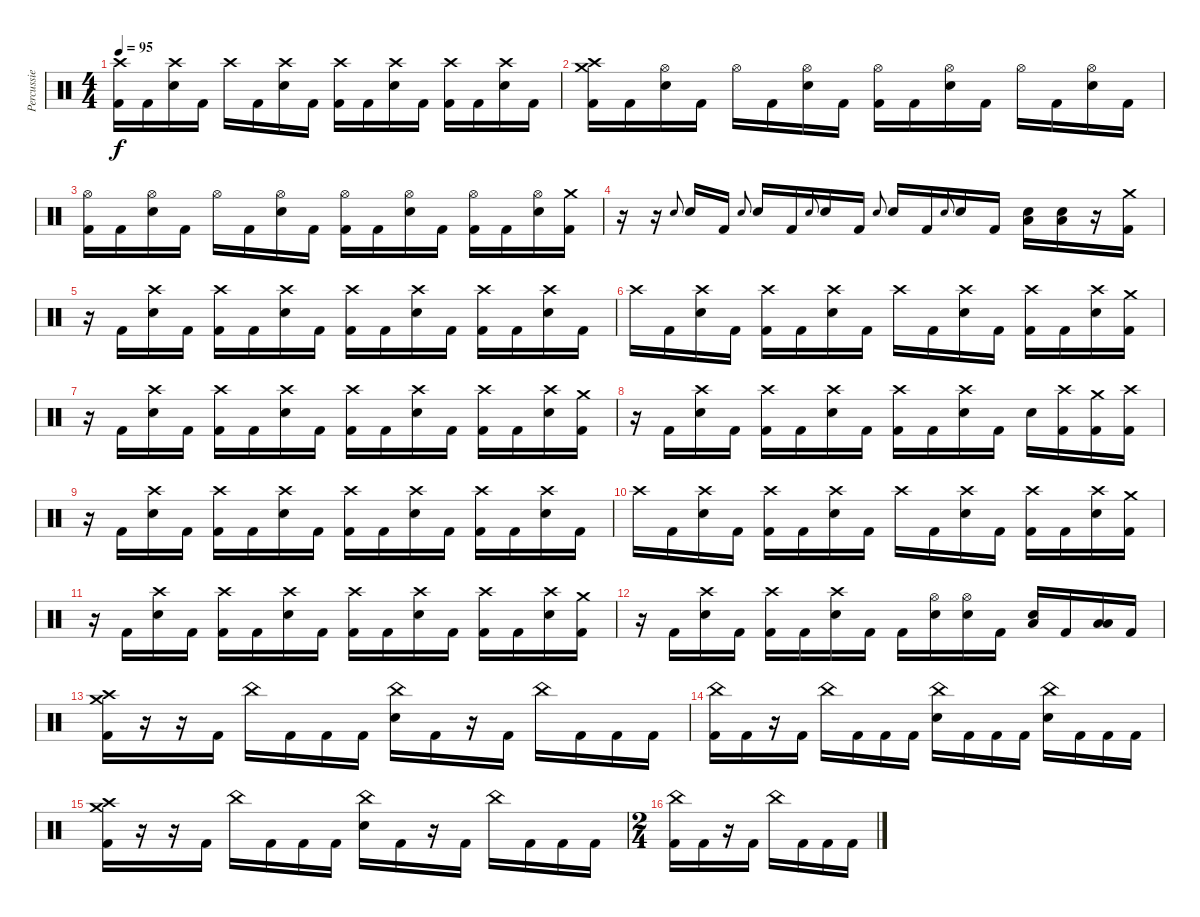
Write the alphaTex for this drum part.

\track ("Percussie" "Percussie") {instrument percussion}
\staff {score}
\articulation defaults
\ts (4 4)
\tempo 95
\clef neutral
\ks c
("Crash high (hit)" "Kick (hit) 2").16{dy f} "Kick (hit) 2".16 ("Crash high (hit)" "Electric Snare (hit)").16 "Kick (hit) 2".16 "Crash high (hit)".16 "Kick (hit) 2".16 ("Crash high (hit)" "Electric Snare (hit)").16 "Kick (hit) 2".16 ("Crash high (hit)" "Kick (hit) 2").16 "Kick (hit) 2".16 ("Crash high (hit)" "Electric Snare (hit)").16 "Kick (hit) 2".16 ("Crash high (hit)" "Kick (hit) 2").16 "Kick (hit) 2".16 ("Crash high (hit)" "Electric Snare (hit)").16 "Kick (hit) 2".16 |
("Crash medium (hit)" "Crash high (hit)" "Kick (hit) 2").16 "Kick (hit) 2".16 ("Hi-Hat (open)" "Electric Snare (hit)").16 "Kick (hit) 2".16 "Hi-Hat (open)".16 "Kick (hit) 2".16 ("Hi-Hat (open)" "Electric Snare (hit)").16 "Kick (hit) 2".16 ("Hi-Hat (open)" "Kick (hit) 2").16 "Kick (hit) 2".16 ("Hi-Hat (open)" "Electric Snare (hit)").16 "Kick (hit) 2".16 "Hi-Hat (open)".16 "Kick (hit) 2".16 ("Hi-Hat (open)" "Electric Snare (hit)").16 "Kick (hit) 2".16 |
("Hi-Hat (open)" "Kick (hit) 2").16 "Kick (hit) 2".16 ("Hi-Hat (open)" "Electric Snare (hit)").16 "Kick (hit) 2".16 "Hi-Hat (open)".16 "Kick (hit) 2".16 ("Hi-Hat (open)" "Electric Snare (hit)").16 "Kick (hit) 2".16 ("Hi-Hat (open)" "Kick (hit) 2").16 "Kick (hit) 2".16 ("Hi-Hat (open)" "Electric Snare (hit)").16 "Kick (hit) 2".16 ("Hi-Hat (open)" "Kick (hit) 2").16 "Kick (hit) 2".16 ("Hi-Hat (open)" "Electric Snare (hit)").16 ("Crash medium (hit)" "Kick (hit) 2").16 |
r.16 r.16 "Electric Snare (hit)".8{gr onbeat} "Electric Snare (hit)".16 "Kick (hit) 2".16 "Electric Snare (hit)".8{gr onbeat} "Electric Snare (hit)".16 "Kick (hit) 2".16 "Electric Snare (hit)".8{gr onbeat} "Electric Snare (hit)".16 "Kick (hit) 2".16 "Electric Snare (hit)".8{gr onbeat} "Electric Snare (hit)".16 "Kick (hit) 2".16 "Electric Snare (hit)".8{gr onbeat} "Electric Snare (hit)".16 "Kick (hit) 2".16 ("Low Floor Tom (hit)" "Electric Snare (hit)").16 ("Low Floor Tom (hit)" "Electric Snare (hit)").16 r.16 ("Crash medium (hit)" "Kick (hit) 2").16 |
r.16 "Kick (hit) 2".16 ("Crash high (hit)" "Electric Snare (hit)").16 "Kick (hit) 2".16 ("Crash high (hit)" "Kick (hit) 2").16 "Kick (hit) 2".16 ("Crash high (hit)" "Electric Snare (hit)").16 "Kick (hit) 2".16 ("Crash high (hit)" "Kick (hit) 2").16 "Kick (hit) 2".16 ("Crash high (hit)" "Electric Snare (hit)").16 "Kick (hit) 2".16 ("Crash high (hit)" "Kick (hit) 2").16 "Kick (hit) 2".16 ("Crash high (hit)" "Electric Snare (hit)").16 "Kick (hit) 2".16 |
"Crash high (hit)".16 "Kick (hit) 2".16 ("Crash high (hit)" "Electric Snare (hit)").16 "Kick (hit) 2".16 ("Crash high (hit)" "Kick (hit) 2").16 "Kick (hit) 2".16 ("Crash high (hit)" "Electric Snare (hit)").16 "Kick (hit) 2".16 "Crash high (hit)".16 "Kick (hit) 2".16 ("Crash high (hit)" "Electric Snare (hit)").16 "Kick (hit) 2".16 ("Crash high (hit)" "Kick (hit) 2").16 "Kick (hit) 2".16 ("Crash high (hit)" "Electric Snare (hit)").16 ("Crash medium (hit)" "Kick (hit) 2").16 |
r.16 "Kick (hit) 2".16 ("Crash high (hit)" "Electric Snare (hit)").16 "Kick (hit) 2".16 ("Crash high (hit)" "Kick (hit) 2").16 "Kick (hit) 2".16 ("Crash high (hit)" "Electric Snare (hit)").16 "Kick (hit) 2".16 ("Crash high (hit)" "Kick (hit) 2").16 "Kick (hit) 2".16 ("Crash high (hit)" "Electric Snare (hit)").16 "Kick (hit) 2".16 ("Crash high (hit)" "Kick (hit) 2").16 "Kick (hit) 2".16 ("Crash high (hit)" "Electric Snare (hit)").16 ("Crash medium (hit)" "Kick (hit) 2").16 |
r.16 "Kick (hit) 2".16 ("Crash high (hit)" "Electric Snare (hit)").16 "Kick (hit) 2".16 ("Crash high (hit)" "Kick (hit) 2").16 "Kick (hit) 2".16 ("Crash high (hit)" "Electric Snare (hit)").16 "Kick (hit) 2".16 ("Crash high (hit)" "Kick (hit) 2").16 "Kick (hit) 2".16 ("Crash high (hit)" "Electric Snare (hit)").16 "Kick (hit) 2".16 "Electric Snare (hit)".16 ("Crash high (hit)" "Kick (hit) 2").16 ("Crash medium (hit)" "Kick (hit) 2").16 ("Crash high (hit)" "Kick (hit) 2").16 |
r.16 "Kick (hit) 2".16 ("Crash high (hit)" "Electric Snare (hit)").16 "Kick (hit) 2".16 ("Crash high (hit)" "Kick (hit) 2").16 "Kick (hit) 2".16 ("Crash high (hit)" "Electric Snare (hit)").16 "Kick (hit) 2".16 ("Crash high (hit)" "Kick (hit) 2").16 "Kick (hit) 2".16 ("Crash high (hit)" "Electric Snare (hit)").16 "Kick (hit) 2".16 ("Crash high (hit)" "Kick (hit) 2").16 "Kick (hit) 2".16 ("Crash high (hit)" "Electric Snare (hit)").16 "Kick (hit) 2".16 |
"Crash high (hit)".16 "Kick (hit) 2".16 ("Crash high (hit)" "Electric Snare (hit)").16 "Kick (hit) 2".16 ("Crash high (hit)" "Kick (hit) 2").16 "Kick (hit) 2".16 ("Crash high (hit)" "Electric Snare (hit)").16 "Kick (hit) 2".16 "Crash high (hit)".16 "Kick (hit) 2".16 ("Crash high (hit)" "Electric Snare (hit)").16 "Kick (hit) 2".16 ("Crash high (hit)" "Kick (hit) 2").16 "Kick (hit) 2".16 ("Crash high (hit)" "Electric Snare (hit)").16 ("Crash medium (hit)" "Kick (hit) 2").16 |
r.16 "Kick (hit) 2".16 ("Crash high (hit)" "Electric Snare (hit)").16 "Kick (hit) 2".16 ("Crash high (hit)" "Kick (hit) 2").16 "Kick (hit) 2".16 ("Crash high (hit)" "Electric Snare (hit)").16 "Kick (hit) 2".16 ("Crash high (hit)" "Kick (hit) 2").16 "Kick (hit) 2".16 ("Crash high (hit)" "Electric Snare (hit)").16 "Kick (hit) 2".16 ("Crash high (hit)" "Kick (hit) 2").16 "Kick (hit) 2".16 ("Crash high (hit)" "Electric Snare (hit)").16 ("Crash medium (hit)" "Kick (hit) 2").16 |
r.16 "Kick (hit) 2".16 ("Crash high (hit)" "Electric Snare (hit)").16 "Kick (hit) 2".16 ("Crash high (hit)" "Kick (hit) 2").16 "Kick (hit) 2".16 ("Crash high (hit)" "Electric Snare (hit)").16 "Kick (hit) 2".16 "Kick (hit) 2".16 ("Hi-Hat (open)" "Electric Snare (hit)").16 ("Hi-Hat (open)" "Electric Snare (hit)").16 "Kick (hit) 2".16 ("Low Floor Tom (hit)" "Electric Snare (hit)").16 "Kick (hit) 2".16 ("Low Tom (hit)" "Low Floor Tom (hit)").16 "Kick (hit) 2".16 |
("Crash medium (hit)" "Crash high (hit)" "Kick (hit) 2").16 r.16 r.16 "Kick (hit) 2".16 "China (hit)".16 "Kick (hit) 2".16 "Kick (hit) 2".16 "Kick (hit) 2".16 ("China (hit)" "Electric Snare (hit)").16 "Kick (hit) 2".16 r.16 "Kick (hit) 2".16 "China (hit)".16 "Kick (hit) 2".16 "Kick (hit) 2".16 "Kick (hit) 2".16 |
("China (hit)" "Kick (hit) 2").16 "Kick (hit) 2".16 r.16 "Kick (hit) 2".16 "China (hit)".16 "Kick (hit) 2".16 "Kick (hit) 2".16 "Kick (hit) 2".16 ("China (hit)" "Electric Snare (hit)").16 "Kick (hit) 2".16 "Kick (hit) 2".16 "Kick (hit) 2".16 ("China (hit)" "Electric Snare (hit)").16 "Kick (hit) 2".16 "Kick (hit) 2".16 "Kick (hit) 2".16 |
("Crash medium (hit)" "Crash high (hit)" "Kick (hit) 2").16 r.16 r.16 "Kick (hit) 2".16 "China (hit)".16 "Kick (hit) 2".16 "Kick (hit) 2".16 "Kick (hit) 2".16 ("China (hit)" "Electric Snare (hit)").16 "Kick (hit) 2".16 r.16 "Kick (hit) 2".16 "China (hit)".16 "Kick (hit) 2".16 "Kick (hit) 2".16 "Kick (hit) 2".16 |
\ts (2 4)
("China (hit)" "Kick (hit) 2").16 "Kick (hit) 2".16 r.16 "Kick (hit) 2".16 "China (hit)".16 "Kick (hit) 2".16 "Kick (hit) 2".16 "Kick (hit) 2".16
